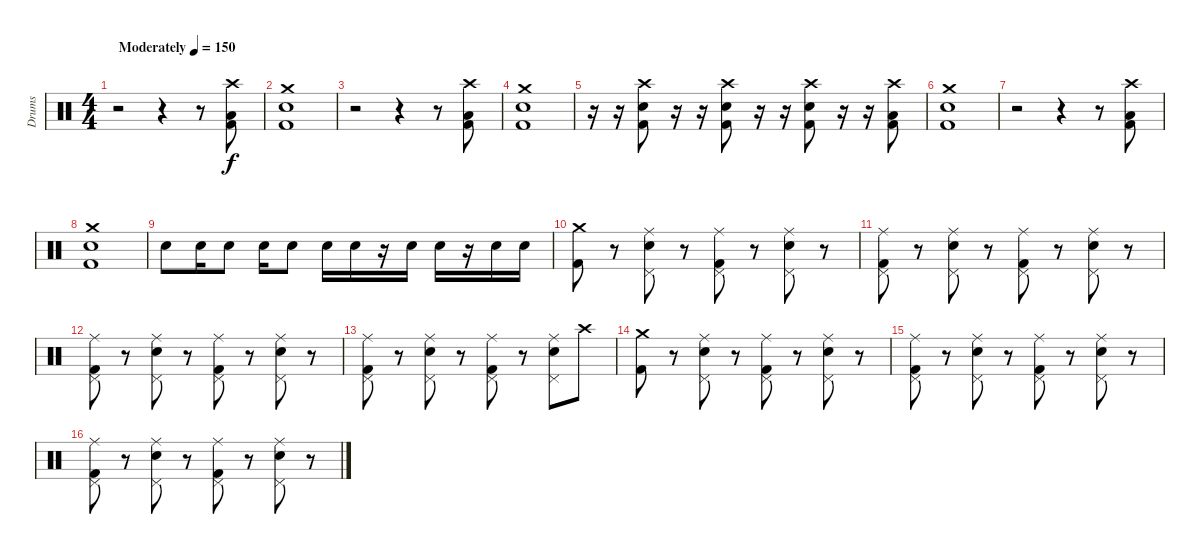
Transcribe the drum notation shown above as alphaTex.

\track ("Drums" "Drums") {instrument percussion}
\staff {score}
\articulation defaults
\ts (4 4)
\tempo (150 "Moderately")
\clef neutral
\ks c
r.2{dy f} r.4 r.8 ("Crash high (hit)" "Low Tom (hit)" "Kick (hit) 2").8 |
("Crash medium (hit)" "Snare (hit) 2" "Kick (hit) 2").1 |
r.2 r.4 r.8 ("Crash high (hit)" "Low Tom (hit)" "Kick (hit) 2").8 |
("Crash medium (hit)" "Snare (hit) 2" "Kick (hit) 2").1 |
r.16 r.16 ("Crash high (hit)" "Snare (hit) 2" "Kick (hit) 2").8 r.16 r.16 ("Crash high (hit)" "Snare (hit) 2" "Kick (hit) 2").8 r.16 r.16 ("Crash high (hit)" "Snare (hit) 2" "Kick (hit) 2").8 r.16 r.16 ("Crash high (hit)" "Low Tom (hit)" "Kick (hit) 2").8 |
("Crash medium (hit)" "Snare (hit) 2" "Kick (hit) 2").1 |
r.2 r.4 r.8 ("Crash high (hit)" "Low Tom (hit)" "Kick (hit) 2").8 |
("Crash medium (hit)" "Snare (hit) 2" "Kick (hit) 2").1 |
"Snare (hit) 2".8 "Snare (hit) 2".16 "Snare (hit) 2".8 "Snare (hit) 2".16 "Snare (hit) 2".8 "Snare (hit) 2".16 "Snare (hit) 2".16 r.16 "Snare (hit) 2".16 "Snare (hit) 2".16 r.16 "Snare (hit) 2".16 "Snare (hit) 2".16 |
("Crash medium (hit)" "Kick (hit) 2").8 r.8 ("Pedal Hi-Hat (hit)" "Ride (middle)" "Snare (hit) 2").8 r.8 ("Pedal Hi-Hat (hit)" "Ride (middle)" "Kick (hit) 2").8 r.8 ("Pedal Hi-Hat (hit)" "Ride (middle)" "Snare (hit) 2").8 r.8 |
("Pedal Hi-Hat (hit)" "Ride (middle)" "Kick (hit) 2").8 r.8 ("Pedal Hi-Hat (hit)" "Ride (middle)" "Snare (hit) 2").8 r.8 ("Pedal Hi-Hat (hit)" "Ride (middle)" "Kick (hit) 2").8 r.8 ("Pedal Hi-Hat (hit)" "Ride (middle)" "Snare (hit) 2").8 r.8 |
("Pedal Hi-Hat (hit)" "Ride (middle)" "Kick (hit) 2").8 r.8 ("Pedal Hi-Hat (hit)" "Ride (middle)" "Snare (hit) 2").8 r.8 ("Pedal Hi-Hat (hit)" "Ride (middle)" "Kick (hit) 2").8 r.8 ("Pedal Hi-Hat (hit)" "Ride (middle)" "Snare (hit) 2").8 r.8 |
("Pedal Hi-Hat (hit)" "Ride (middle)" "Kick (hit) 2").8 r.8 ("Pedal Hi-Hat (hit)" "Ride (middle)" "Snare (hit) 2").8 r.8 ("Pedal Hi-Hat (hit)" "Ride (middle)" "Kick (hit) 2").8 r.8 ("Pedal Hi-Hat (hit)" "Ride (middle)" "Snare (hit) 2").8 "Crash high (hit)".8 |
("Crash medium (hit)" "Kick (hit) 2").8 r.8 ("Pedal Hi-Hat (hit)" "Ride (middle)" "Snare (hit) 2").8 r.8 ("Pedal Hi-Hat (hit)" "Ride (middle)" "Kick (hit) 2").8 r.8 ("Pedal Hi-Hat (hit)" "Ride (middle)" "Snare (hit) 2").8 r.8 |
("Pedal Hi-Hat (hit)" "Ride (middle)" "Kick (hit) 2").8 r.8 ("Pedal Hi-Hat (hit)" "Ride (middle)" "Snare (hit) 2").8 r.8 ("Pedal Hi-Hat (hit)" "Ride (middle)" "Kick (hit) 2").8 r.8 ("Pedal Hi-Hat (hit)" "Ride (middle)" "Snare (hit) 2").8 r.8 |
("Pedal Hi-Hat (hit)" "Ride (middle)" "Kick (hit) 2").8 r.8 ("Pedal Hi-Hat (hit)" "Ride (middle)" "Snare (hit) 2").8 r.8 ("Pedal Hi-Hat (hit)" "Ride (middle)" "Kick (hit) 2").8 r.8 ("Pedal Hi-Hat (hit)" "Ride (middle)" "Snare (hit) 2").8 r.8
